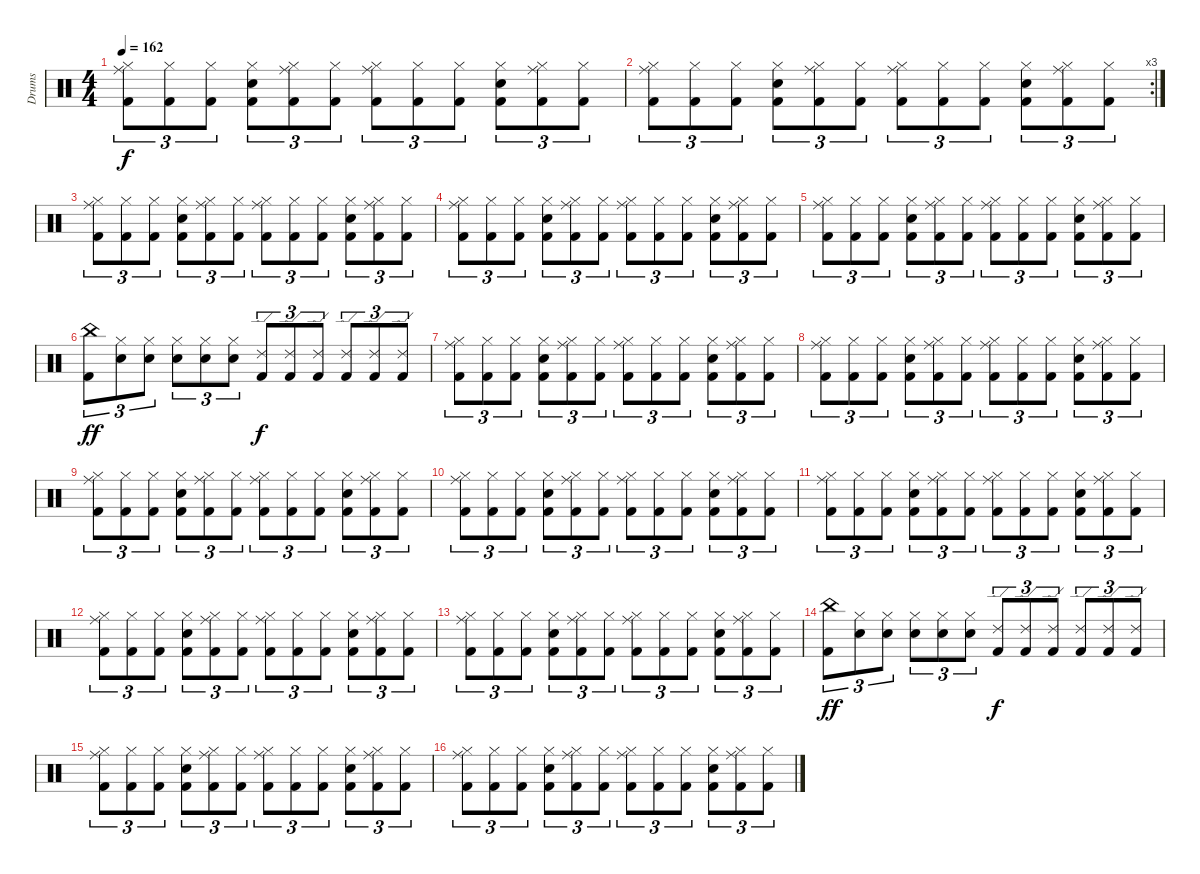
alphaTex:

\track ("Drums" "Drums") {instrument percussion}
\staff {score}
\articulation defaults
\ts (4 4)
\tempo 162
\clef neutral
\ks c
("Kick (hit) 2" "Ride (middle)" "Hi-Hat (closed)").8{tu (3 2) dy f} ("Kick (hit) 2" "Hi-Hat (closed)").8{tu (3 2)} ("Kick (hit) 2" "Hi-Hat (closed)").8{tu (3 2)} ("Kick (hit) 2" "Electric Snare (hit)" "Hi-Hat (closed)").8{tu (3 2)} ("Kick (hit) 2" "Ride (middle)" "Hi-Hat (closed)").8{tu (3 2)} ("Kick (hit) 2" "Hi-Hat (closed)").8{tu (3 2)} ("Kick (hit) 2" "Ride (middle)" "Hi-Hat (closed)").8{tu (3 2)} ("Kick (hit) 2" "Hi-Hat (closed)").8{tu (3 2)} ("Kick (hit) 2" "Hi-Hat (closed)").8{tu (3 2)} ("Kick (hit) 2" "Electric Snare (hit)" "Hi-Hat (closed)").8{tu (3 2)} ("Kick (hit) 2" "Ride (middle)" "Hi-Hat (closed)").8{tu (3 2)} ("Kick (hit) 2" "Hi-Hat (closed)").8{tu (3 2)} |
\rc 3
("Kick (hit) 2" "Ride (middle)" "Hi-Hat (closed)").8{tu (3 2)} ("Kick (hit) 2" "Hi-Hat (closed)").8{tu (3 2)} ("Kick (hit) 2" "Hi-Hat (closed)").8{tu (3 2)} ("Kick (hit) 2" "Electric Snare (hit)" "Hi-Hat (closed)").8{tu (3 2)} ("Kick (hit) 2" "Ride (middle)" "Hi-Hat (closed)").8{tu (3 2)} ("Kick (hit) 2" "Hi-Hat (closed)").8{tu (3 2)} ("Kick (hit) 2" "Ride (middle)" "Hi-Hat (closed)").8{tu (3 2)} ("Kick (hit) 2" "Hi-Hat (closed)").8{tu (3 2)} ("Kick (hit) 2" "Hi-Hat (closed)").8{tu (3 2)} ("Kick (hit) 2" "Electric Snare (hit)" "Hi-Hat (closed)").8{tu (3 2)} ("Kick (hit) 2" "Ride (middle)" "Hi-Hat (closed)").8{tu (3 2)} ("Kick (hit) 2" "Hi-Hat (closed)").8{tu (3 2)} |
("Kick (hit) 2" "Ride (middle)" "Hi-Hat (closed)").8{tu (3 2)} ("Kick (hit) 2" "Hi-Hat (closed)").8{tu (3 2)} ("Kick (hit) 2" "Hi-Hat (closed)").8{tu (3 2)} ("Kick (hit) 2" "Electric Snare (hit)" "Hi-Hat (closed)").8{tu (3 2)} ("Kick (hit) 2" "Ride (middle)" "Hi-Hat (closed)").8{tu (3 2)} ("Kick (hit) 2" "Hi-Hat (closed)").8{tu (3 2)} ("Kick (hit) 2" "Ride (middle)" "Hi-Hat (closed)").8{tu (3 2)} ("Kick (hit) 2" "Hi-Hat (closed)").8{tu (3 2)} ("Kick (hit) 2" "Hi-Hat (closed)").8{tu (3 2)} ("Kick (hit) 2" "Electric Snare (hit)" "Hi-Hat (closed)").8{tu (3 2)} ("Kick (hit) 2" "Ride (middle)" "Hi-Hat (closed)").8{tu (3 2)} ("Kick (hit) 2" "Hi-Hat (closed)").8{tu (3 2)} |
("Kick (hit) 2" "Ride (middle)" "Hi-Hat (closed)").8{tu (3 2)} ("Kick (hit) 2" "Hi-Hat (closed)").8{tu (3 2)} ("Kick (hit) 2" "Hi-Hat (closed)").8{tu (3 2)} ("Kick (hit) 2" "Electric Snare (hit)" "Hi-Hat (closed)").8{tu (3 2)} ("Kick (hit) 2" "Ride (middle)" "Hi-Hat (closed)").8{tu (3 2)} ("Kick (hit) 2" "Hi-Hat (closed)").8{tu (3 2)} ("Kick (hit) 2" "Ride (middle)" "Hi-Hat (closed)").8{tu (3 2)} ("Kick (hit) 2" "Hi-Hat (closed)").8{tu (3 2)} ("Kick (hit) 2" "Hi-Hat (closed)").8{tu (3 2)} ("Kick (hit) 2" "Electric Snare (hit)" "Hi-Hat (closed)").8{tu (3 2)} ("Kick (hit) 2" "Ride (middle)" "Hi-Hat (closed)").8{tu (3 2)} ("Kick (hit) 2" "Hi-Hat (closed)").8{tu (3 2)} |
("Kick (hit) 2" "Ride (middle)" "Hi-Hat (closed)").8{tu (3 2)} ("Kick (hit) 2" "Hi-Hat (closed)").8{tu (3 2)} ("Kick (hit) 2" "Hi-Hat (closed)").8{tu (3 2)} ("Kick (hit) 2" "Electric Snare (hit)" "Hi-Hat (closed)").8{tu (3 2)} ("Kick (hit) 2" "Ride (middle)" "Hi-Hat (closed)").8{tu (3 2)} ("Kick (hit) 2" "Hi-Hat (closed)").8{tu (3 2)} ("Kick (hit) 2" "Ride (middle)" "Hi-Hat (closed)").8{tu (3 2)} ("Kick (hit) 2" "Hi-Hat (closed)").8{tu (3 2)} ("Kick (hit) 2" "Hi-Hat (closed)").8{tu (3 2)} ("Kick (hit) 2" "Electric Snare (hit)" "Hi-Hat (closed)").8{tu (3 2)} ("Kick (hit) 2" "Ride (middle)" "Hi-Hat (closed)").8{tu (3 2)} ("Kick (hit) 2" "Hi-Hat (closed)").8{tu (3 2)} |
("Kick (hit) 2" "China (hit)").8{tu (3 2) dy ff} ("Electric Snare (hit)" "Hi-Hat (closed)").8{tu (3 2)} ("Electric Snare (hit)" "Hi-Hat (closed)").8{tu (3 2)} ("Electric Snare (hit)" "Hi-Hat (closed)").8{tu (3 2)} ("Electric Snare (hit)" "Hi-Hat (closed)").8{tu (3 2)} ("Electric Snare (hit)" "Hi-Hat (closed)").8{tu (3 2)} ("Kick (hit) 2" "Ride (edge) 2").8{tu (3 2) dy f} ("Kick (hit) 2" "Ride (edge) 2").8{tu (3 2)} ("Kick (hit) 2" "Ride (edge) 2").8{tu (3 2)} ("Kick (hit) 2" "Ride (edge) 2").8{tu (3 2)} ("Kick (hit) 2" "Ride (edge) 2").8{tu (3 2)} ("Kick (hit) 2" "Ride (edge) 2").8{tu (3 2)} |
("Kick (hit) 2" "Ride (middle)" "Hi-Hat (closed)").8{tu (3 2)} ("Kick (hit) 2" "Hi-Hat (closed)").8{tu (3 2)} ("Kick (hit) 2" "Hi-Hat (closed)").8{tu (3 2)} ("Kick (hit) 2" "Electric Snare (hit)" "Hi-Hat (closed)").8{tu (3 2)} ("Kick (hit) 2" "Ride (middle)" "Hi-Hat (closed)").8{tu (3 2)} ("Kick (hit) 2" "Hi-Hat (closed)").8{tu (3 2)} ("Kick (hit) 2" "Ride (middle)" "Hi-Hat (closed)").8{tu (3 2)} ("Kick (hit) 2" "Hi-Hat (closed)").8{tu (3 2)} ("Kick (hit) 2" "Hi-Hat (closed)").8{tu (3 2)} ("Kick (hit) 2" "Electric Snare (hit)" "Hi-Hat (closed)").8{tu (3 2)} ("Kick (hit) 2" "Ride (middle)" "Hi-Hat (closed)").8{tu (3 2)} ("Kick (hit) 2" "Hi-Hat (closed)").8{tu (3 2)} |
("Kick (hit) 2" "Ride (middle)" "Hi-Hat (closed)").8{tu (3 2)} ("Kick (hit) 2" "Hi-Hat (closed)").8{tu (3 2)} ("Kick (hit) 2" "Hi-Hat (closed)").8{tu (3 2)} ("Kick (hit) 2" "Electric Snare (hit)" "Hi-Hat (closed)").8{tu (3 2)} ("Kick (hit) 2" "Ride (middle)" "Hi-Hat (closed)").8{tu (3 2)} ("Kick (hit) 2" "Hi-Hat (closed)").8{tu (3 2)} ("Kick (hit) 2" "Ride (middle)" "Hi-Hat (closed)").8{tu (3 2)} ("Kick (hit) 2" "Hi-Hat (closed)").8{tu (3 2)} ("Kick (hit) 2" "Hi-Hat (closed)").8{tu (3 2)} ("Kick (hit) 2" "Electric Snare (hit)" "Hi-Hat (closed)").8{tu (3 2)} ("Kick (hit) 2" "Ride (middle)" "Hi-Hat (closed)").8{tu (3 2)} ("Kick (hit) 2" "Hi-Hat (closed)").8{tu (3 2)} |
("Kick (hit) 2" "Ride (middle)" "Hi-Hat (closed)").8{tu (3 2)} ("Kick (hit) 2" "Hi-Hat (closed)").8{tu (3 2)} ("Kick (hit) 2" "Hi-Hat (closed)").8{tu (3 2)} ("Kick (hit) 2" "Electric Snare (hit)" "Hi-Hat (closed)").8{tu (3 2)} ("Kick (hit) 2" "Ride (middle)" "Hi-Hat (closed)").8{tu (3 2)} ("Kick (hit) 2" "Hi-Hat (closed)").8{tu (3 2)} ("Kick (hit) 2" "Ride (middle)" "Hi-Hat (closed)").8{tu (3 2)} ("Kick (hit) 2" "Hi-Hat (closed)").8{tu (3 2)} ("Kick (hit) 2" "Hi-Hat (closed)").8{tu (3 2)} ("Kick (hit) 2" "Electric Snare (hit)" "Hi-Hat (closed)").8{tu (3 2)} ("Kick (hit) 2" "Ride (middle)" "Hi-Hat (closed)").8{tu (3 2)} ("Kick (hit) 2" "Hi-Hat (closed)").8{tu (3 2)} |
("Kick (hit) 2" "Ride (middle)" "Hi-Hat (closed)").8{tu (3 2)} ("Kick (hit) 2" "Hi-Hat (closed)").8{tu (3 2)} ("Kick (hit) 2" "Hi-Hat (closed)").8{tu (3 2)} ("Kick (hit) 2" "Electric Snare (hit)" "Hi-Hat (closed)").8{tu (3 2)} ("Kick (hit) 2" "Ride (middle)" "Hi-Hat (closed)").8{tu (3 2)} ("Kick (hit) 2" "Hi-Hat (closed)").8{tu (3 2)} ("Kick (hit) 2" "Ride (middle)" "Hi-Hat (closed)").8{tu (3 2)} ("Kick (hit) 2" "Hi-Hat (closed)").8{tu (3 2)} ("Kick (hit) 2" "Hi-Hat (closed)").8{tu (3 2)} ("Kick (hit) 2" "Electric Snare (hit)" "Hi-Hat (closed)").8{tu (3 2)} ("Kick (hit) 2" "Ride (middle)" "Hi-Hat (closed)").8{tu (3 2)} ("Kick (hit) 2" "Hi-Hat (closed)").8{tu (3 2)} |
("Kick (hit) 2" "Ride (middle)" "Hi-Hat (closed)").8{tu (3 2)} ("Kick (hit) 2" "Hi-Hat (closed)").8{tu (3 2)} ("Kick (hit) 2" "Hi-Hat (closed)").8{tu (3 2)} ("Kick (hit) 2" "Electric Snare (hit)" "Hi-Hat (closed)").8{tu (3 2)} ("Kick (hit) 2" "Ride (middle)" "Hi-Hat (closed)").8{tu (3 2)} ("Kick (hit) 2" "Hi-Hat (closed)").8{tu (3 2)} ("Kick (hit) 2" "Ride (middle)" "Hi-Hat (closed)").8{tu (3 2)} ("Kick (hit) 2" "Hi-Hat (closed)").8{tu (3 2)} ("Kick (hit) 2" "Hi-Hat (closed)").8{tu (3 2)} ("Kick (hit) 2" "Electric Snare (hit)" "Hi-Hat (closed)").8{tu (3 2)} ("Kick (hit) 2" "Ride (middle)" "Hi-Hat (closed)").8{tu (3 2)} ("Kick (hit) 2" "Hi-Hat (closed)").8{tu (3 2)} |
("Kick (hit) 2" "Ride (middle)" "Hi-Hat (closed)").8{tu (3 2)} ("Kick (hit) 2" "Hi-Hat (closed)").8{tu (3 2)} ("Kick (hit) 2" "Hi-Hat (closed)").8{tu (3 2)} ("Kick (hit) 2" "Electric Snare (hit)" "Hi-Hat (closed)").8{tu (3 2)} ("Kick (hit) 2" "Ride (middle)" "Hi-Hat (closed)").8{tu (3 2)} ("Kick (hit) 2" "Hi-Hat (closed)").8{tu (3 2)} ("Kick (hit) 2" "Ride (middle)" "Hi-Hat (closed)").8{tu (3 2)} ("Kick (hit) 2" "Hi-Hat (closed)").8{tu (3 2)} ("Kick (hit) 2" "Hi-Hat (closed)").8{tu (3 2)} ("Kick (hit) 2" "Electric Snare (hit)" "Hi-Hat (closed)").8{tu (3 2)} ("Kick (hit) 2" "Ride (middle)" "Hi-Hat (closed)").8{tu (3 2)} ("Kick (hit) 2" "Hi-Hat (closed)").8{tu (3 2)} |
("Kick (hit) 2" "Ride (middle)" "Hi-Hat (closed)").8{tu (3 2)} ("Kick (hit) 2" "Hi-Hat (closed)").8{tu (3 2)} ("Kick (hit) 2" "Hi-Hat (closed)").8{tu (3 2)} ("Kick (hit) 2" "Electric Snare (hit)" "Hi-Hat (closed)").8{tu (3 2)} ("Kick (hit) 2" "Ride (middle)" "Hi-Hat (closed)").8{tu (3 2)} ("Kick (hit) 2" "Hi-Hat (closed)").8{tu (3 2)} ("Kick (hit) 2" "Ride (middle)" "Hi-Hat (closed)").8{tu (3 2)} ("Kick (hit) 2" "Hi-Hat (closed)").8{tu (3 2)} ("Kick (hit) 2" "Hi-Hat (closed)").8{tu (3 2)} ("Kick (hit) 2" "Electric Snare (hit)" "Hi-Hat (closed)").8{tu (3 2)} ("Kick (hit) 2" "Ride (middle)" "Hi-Hat (closed)").8{tu (3 2)} ("Kick (hit) 2" "Hi-Hat (closed)").8{tu (3 2)} |
("Kick (hit) 2" "China (hit)").8{tu (3 2) dy ff} ("Electric Snare (hit)" "Hi-Hat (closed)").8{tu (3 2)} ("Electric Snare (hit)" "Hi-Hat (closed)").8{tu (3 2)} ("Electric Snare (hit)" "Hi-Hat (closed)").8{tu (3 2)} ("Electric Snare (hit)" "Hi-Hat (closed)").8{tu (3 2)} ("Electric Snare (hit)" "Hi-Hat (closed)").8{tu (3 2)} ("Kick (hit) 2" "Ride (edge) 2").8{tu (3 2) dy f} ("Kick (hit) 2" "Ride (edge) 2").8{tu (3 2)} ("Kick (hit) 2" "Ride (edge) 2").8{tu (3 2)} ("Kick (hit) 2" "Ride (edge) 2").8{tu (3 2)} ("Kick (hit) 2" "Ride (edge) 2").8{tu (3 2)} ("Kick (hit) 2" "Ride (edge) 2").8{tu (3 2)} |
("Kick (hit) 2" "Ride (middle)" "Hi-Hat (closed)").8{tu (3 2)} ("Kick (hit) 2" "Hi-Hat (closed)").8{tu (3 2)} ("Kick (hit) 2" "Hi-Hat (closed)").8{tu (3 2)} ("Kick (hit) 2" "Electric Snare (hit)" "Hi-Hat (closed)").8{tu (3 2)} ("Kick (hit) 2" "Ride (middle)" "Hi-Hat (closed)").8{tu (3 2)} ("Kick (hit) 2" "Hi-Hat (closed)").8{tu (3 2)} ("Kick (hit) 2" "Ride (middle)" "Hi-Hat (closed)").8{tu (3 2)} ("Kick (hit) 2" "Hi-Hat (closed)").8{tu (3 2)} ("Kick (hit) 2" "Hi-Hat (closed)").8{tu (3 2)} ("Kick (hit) 2" "Electric Snare (hit)" "Hi-Hat (closed)").8{tu (3 2)} ("Kick (hit) 2" "Ride (middle)" "Hi-Hat (closed)").8{tu (3 2)} ("Kick (hit) 2" "Hi-Hat (closed)").8{tu (3 2)} |
("Kick (hit) 2" "Ride (middle)" "Hi-Hat (closed)").8{tu (3 2)} ("Kick (hit) 2" "Hi-Hat (closed)").8{tu (3 2)} ("Kick (hit) 2" "Hi-Hat (closed)").8{tu (3 2)} ("Kick (hit) 2" "Electric Snare (hit)" "Hi-Hat (closed)").8{tu (3 2)} ("Kick (hit) 2" "Ride (middle)" "Hi-Hat (closed)").8{tu (3 2)} ("Kick (hit) 2" "Hi-Hat (closed)").8{tu (3 2)} ("Kick (hit) 2" "Ride (middle)" "Hi-Hat (closed)").8{tu (3 2)} ("Kick (hit) 2" "Hi-Hat (closed)").8{tu (3 2)} ("Kick (hit) 2" "Hi-Hat (closed)").8{tu (3 2)} ("Kick (hit) 2" "Electric Snare (hit)" "Hi-Hat (closed)").8{tu (3 2)} ("Kick (hit) 2" "Ride (middle)" "Hi-Hat (closed)").8{tu (3 2)} ("Kick (hit) 2" "Hi-Hat (closed)").8{tu (3 2)}
